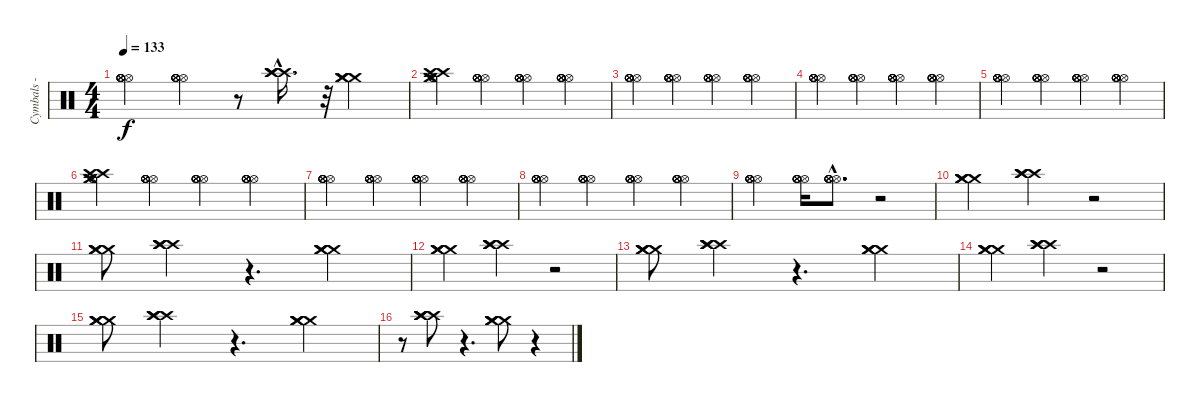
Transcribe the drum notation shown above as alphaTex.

\track ("Cymbals - Joe Daniels" "Cymbals - ") {instrument percussion}
\staff {score}
\articulation defaults
\ts (4 4)
\tempo 133
\clef neutral
\ks c
("Hi-Hat (open)" "Hi-Hat (open)" "Hi-Hat (open)" "Hi-Hat (open)" "Hi-Hat (open)" "Hi-Hat (open)").4{dy f} ("Hi-Hat (open)" "Hi-Hat (open)" "Hi-Hat (open)" "Hi-Hat (open)" "Hi-Hat (open)" "Hi-Hat (open)").4 r.8 ("Crash high (hit)"{hac} "Crash high (hit)"{hac} "Crash high (hit)"{hac} "Crash high (hit)"{hac}).16{d} r.32 ("Crash medium (hit)" "Crash medium (hit)" "Crash medium (hit)" "Crash medium (hit)").4 |
("Hi-Hat (open)" "Crash medium (hit)" "Crash medium (hit)" "Crash high (hit)" "Crash high (hit)" "Hi-Hat (open)").4 ("Hi-Hat (open)" "Hi-Hat (open)" "Hi-Hat (open)" "Hi-Hat (open)" "Hi-Hat (open)" "Hi-Hat (open)").4 ("Hi-Hat (open)" "Hi-Hat (open)" "Hi-Hat (open)" "Hi-Hat (open)" "Hi-Hat (open)" "Hi-Hat (open)").4 ("Hi-Hat (open)" "Hi-Hat (open)" "Hi-Hat (open)" "Hi-Hat (open)" "Hi-Hat (open)" "Hi-Hat (open)").4 |
("Hi-Hat (open)" "Hi-Hat (open)" "Hi-Hat (open)" "Hi-Hat (open)" "Hi-Hat (open)" "Hi-Hat (open)").4 ("Hi-Hat (open)" "Hi-Hat (open)" "Hi-Hat (open)" "Hi-Hat (open)" "Hi-Hat (open)" "Hi-Hat (open)").4 ("Hi-Hat (open)" "Hi-Hat (open)" "Hi-Hat (open)" "Hi-Hat (open)" "Hi-Hat (open)" "Hi-Hat (open)").4 ("Hi-Hat (open)" "Hi-Hat (open)" "Hi-Hat (open)" "Hi-Hat (open)" "Hi-Hat (open)" "Hi-Hat (open)").4 |
("Hi-Hat (open)" "Hi-Hat (open)" "Hi-Hat (open)" "Hi-Hat (open)" "Hi-Hat (open)" "Hi-Hat (open)").4 ("Hi-Hat (open)" "Hi-Hat (open)" "Hi-Hat (open)" "Hi-Hat (open)" "Hi-Hat (open)" "Hi-Hat (open)").4 ("Hi-Hat (open)" "Hi-Hat (open)" "Hi-Hat (open)" "Hi-Hat (open)" "Hi-Hat (open)" "Hi-Hat (open)").4 ("Hi-Hat (open)" "Hi-Hat (open)" "Hi-Hat (open)" "Hi-Hat (open)" "Hi-Hat (open)" "Hi-Hat (open)").4 |
("Hi-Hat (open)" "Hi-Hat (open)" "Hi-Hat (open)" "Hi-Hat (open)" "Hi-Hat (open)" "Hi-Hat (open)").4 ("Hi-Hat (open)" "Hi-Hat (open)" "Hi-Hat (open)" "Hi-Hat (open)" "Hi-Hat (open)" "Hi-Hat (open)").4 ("Hi-Hat (open)" "Hi-Hat (open)" "Hi-Hat (open)" "Hi-Hat (open)" "Hi-Hat (open)" "Hi-Hat (open)").4 ("Hi-Hat (open)" "Hi-Hat (open)" "Hi-Hat (open)" "Hi-Hat (open)" "Hi-Hat (open)" "Hi-Hat (open)").4 |
("Hi-Hat (open)" "Crash medium (hit)" "Crash medium (hit)" "Crash high (hit)" "Crash high (hit)" "Hi-Hat (open)").4 ("Hi-Hat (open)" "Hi-Hat (open)" "Hi-Hat (open)" "Hi-Hat (open)" "Hi-Hat (open)" "Hi-Hat (open)").4 ("Hi-Hat (open)" "Hi-Hat (open)" "Hi-Hat (open)" "Hi-Hat (open)" "Hi-Hat (open)" "Hi-Hat (open)").4 ("Hi-Hat (open)" "Hi-Hat (open)" "Hi-Hat (open)" "Hi-Hat (open)" "Hi-Hat (open)" "Hi-Hat (open)").4 |
("Hi-Hat (open)" "Hi-Hat (open)" "Hi-Hat (open)" "Hi-Hat (open)" "Hi-Hat (open)" "Hi-Hat (open)").4 ("Hi-Hat (open)" "Hi-Hat (open)" "Hi-Hat (open)" "Hi-Hat (open)" "Hi-Hat (open)" "Hi-Hat (open)").4 ("Hi-Hat (open)" "Hi-Hat (open)" "Hi-Hat (open)" "Hi-Hat (open)" "Hi-Hat (open)" "Hi-Hat (open)").4 ("Hi-Hat (open)" "Hi-Hat (open)" "Hi-Hat (open)" "Hi-Hat (open)" "Hi-Hat (open)" "Hi-Hat (open)").4 |
("Hi-Hat (open)" "Hi-Hat (open)" "Hi-Hat (open)" "Hi-Hat (open)" "Hi-Hat (open)" "Hi-Hat (open)").4 ("Hi-Hat (open)" "Hi-Hat (open)" "Hi-Hat (open)" "Hi-Hat (open)" "Hi-Hat (open)" "Hi-Hat (open)").4 ("Hi-Hat (open)" "Hi-Hat (open)" "Hi-Hat (open)" "Hi-Hat (open)" "Hi-Hat (open)" "Hi-Hat (open)").4 ("Hi-Hat (open)" "Hi-Hat (open)" "Hi-Hat (open)" "Hi-Hat (open)" "Hi-Hat (open)" "Hi-Hat (open)").4 |
("Hi-Hat (open)" "Hi-Hat (open)" "Hi-Hat (open)" "Hi-Hat (open)" "Hi-Hat (open)" "Hi-Hat (open)").4 ("Hi-Hat (open)" "Hi-Hat (open)" "Hi-Hat (open)" "Hi-Hat (open)" "Hi-Hat (open)" "Hi-Hat (open)").16 ("Hi-Hat (open)"{hac} "Hi-Hat (open)"{hac} "Hi-Hat (open)"{hac} "Hi-Hat (open)"{hac} "Hi-Hat (open)"{hac} "Hi-Hat (open)"{hac}).8{d} r.2 |
("Crash medium (hit)" "Crash medium (hit)" "Crash medium (hit)" "Crash medium (hit)").4 ("Crash high (hit)" "Crash high (hit)" "Crash high (hit)" "Crash high (hit)").4 r.2 |
("Crash medium (hit)" "Crash medium (hit)" "Crash medium (hit)" "Crash medium (hit)").8 ("Crash high (hit)" "Crash high (hit)" "Crash high (hit)" "Crash high (hit)").4 r.4{d} ("Crash medium (hit)" "Crash medium (hit)" "Crash medium (hit)" "Crash medium (hit)").4 |
("Crash medium (hit)" "Crash medium (hit)" "Crash medium (hit)" "Crash medium (hit)").4 ("Crash high (hit)" "Crash high (hit)" "Crash high (hit)" "Crash high (hit)").4 r.2 |
("Crash medium (hit)" "Crash medium (hit)" "Crash medium (hit)" "Crash medium (hit)").8 ("Crash high (hit)" "Crash high (hit)" "Crash high (hit)" "Crash high (hit)").4 r.4{d} ("Crash medium (hit)" "Crash medium (hit)" "Crash medium (hit)" "Crash medium (hit)").4 |
("Crash medium (hit)" "Crash medium (hit)" "Crash medium (hit)" "Crash medium (hit)").4 ("Crash high (hit)" "Crash high (hit)" "Crash high (hit)" "Crash high (hit)").4 r.2 |
("Crash medium (hit)" "Crash medium (hit)" "Crash medium (hit)" "Crash medium (hit)").8 ("Crash high (hit)" "Crash high (hit)" "Crash high (hit)" "Crash high (hit)").4 r.4{d} ("Crash medium (hit)" "Crash medium (hit)" "Crash medium (hit)" "Crash medium (hit)").4 |
r.8 ("Crash high (hit)" "Crash high (hit)" "Crash high (hit)" "Crash high (hit)").8 r.4{d} ("Crash medium (hit)" "Crash medium (hit)" "Crash medium (hit)" "Crash medium (hit)").8 r.4
